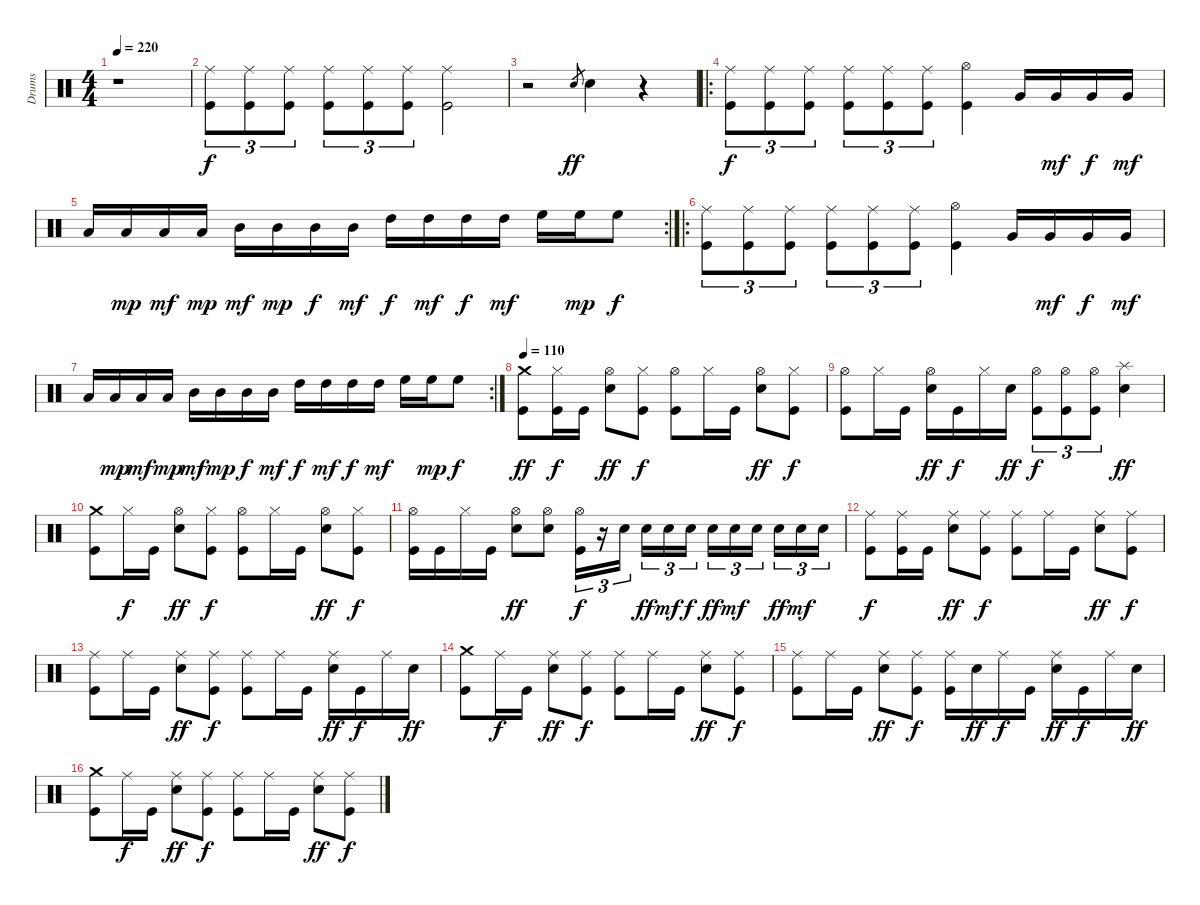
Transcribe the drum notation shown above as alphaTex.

\track ("Drums" "Drums") {instrument percussion}
\staff {score}
\articulation defaults
\ts (4 4)
\tempo 220
\clef neutral
\ks c
r.1{dy f} |
("Kick (hit)" "Ride (middle)").8{tu (3 2)} ("Kick (hit)" "Ride (middle)").8{tu (3 2)} ("Kick (hit)" "Ride (middle)").8{tu (3 2)} ("Kick (hit)" "Ride (middle)").8{tu (3 2)} ("Kick (hit)" "Ride (middle)").8{tu (3 2)} ("Kick (hit)" "Ride (middle)").8{tu (3 2)} ("Kick (hit)" "Ride (middle)").2 |
r.2 "Electric Snare (hit)".8{gr dy ff} "Electric Snare (hit)".4 r.4 |
\ro
("Kick (hit)" "Ride (middle)").8{tu (3 2) dy f} ("Kick (hit)" "Ride (middle)").8{tu (3 2)} ("Kick (hit)" "Ride (middle)").8{tu (3 2)} ("Kick (hit)" "Ride (middle)").8{tu (3 2)} ("Kick (hit)" "Ride (middle)").8{tu (3 2)} ("Kick (hit)" "Ride (middle)").8{tu (3 2)} ("Kick (hit)" "Hi-Hat (open)").4 "Very Low Tom (hit)".16 "Very Low Tom (hit)".16{dy mf} "Very Low Tom (hit)".16{dy f} "Very Low Tom (hit)".16{dy mf} |
\rc 2 "Low Tom (hit)".16 "Low Tom (hit)".16{dy mp} "Low Tom (hit)".16{dy mf} "Low Tom (hit)".16{dy mp} "Mid Tom (hit)".16{dy mf} "Mid Tom (hit)".16{dy mp} "Mid Tom (hit)".16{dy f} "Mid Tom (hit)".16{dy mf} "High Tom (hit)".16{dy f} "High Tom (hit)".16{dy mf} "High Tom (hit)".16{dy f} "High Tom (hit)".16{dy mf} "High Floor Tom (hit)".16 "High Floor Tom (hit)".16{dy mp} "High Floor Tom (hit)".8{dy f}
|
\ro
("Kick (hit)" "Ride (middle)").8{tu (3 2)} ("Kick (hit)" "Ride (middle)").8{tu (3 2)} ("Kick (hit)" "Ride (middle)").8{tu (3 2)} ("Kick (hit)" "Ride (middle)").8{tu (3 2)} ("Kick (hit)" "Ride (middle)").8{tu (3 2)} ("Kick (hit)" "Ride (middle)").8{tu (3 2)} ("Kick (hit)" "Hi-Hat (open)").4 "Very Low Tom (hit)".16 "Very Low Tom (hit)".16{dy mf} "Very Low Tom (hit)".16{dy f} "Very Low Tom (hit)".16{dy mf} |
\rc 2 "Low Tom (hit)".16 "Low Tom (hit)".16{dy mp} "Low Tom (hit)".16{dy mf} "Low Tom (hit)".16{dy mp} "Mid Tom (hit)".16{dy mf} "Mid Tom (hit)".16{dy mp} "Mid Tom (hit)".16{dy f} "Mid Tom (hit)".16{dy mf} "High Tom (hit)".16{dy f} "High Tom (hit)".16{dy mf} "High Tom (hit)".16{dy f} "High Tom (hit)".16{dy mf} "High Floor Tom (hit)".16 "High Floor Tom (hit)".16{dy mp} "High Floor Tom (hit)".8{dy f}
|
\tempo 110
("Kick (hit)" "Crash medium (hit)").8{dy ff} ("Kick (hit)" "Hi-Hat (closed)").16{dy f} "Kick (hit)".16 ("Electric Snare (hit)" "Hi-Hat (open)").8{dy ff} ("Kick (hit)" "Hi-Hat (closed)").8{dy f} ("Kick (hit)" "Hi-Hat (open)").8 "Hi-Hat (closed)".16 "Kick (hit)".16 ("Electric Snare (hit)" "Hi-Hat (open)").8{dy ff} ("Kick (hit)" "Hi-Hat (closed)").8{dy f} |
("Kick (hit)" "Hi-Hat (open)").8 "Hi-Hat (closed)".16 "Kick (hit)".16 ("Electric Snare (hit)" "Hi-Hat (open)").16{dy ff} "Kick (hit)".16{dy f} "Hi-Hat (closed)".16 "Electric Snare (hit)".16{dy ff} ("Kick (hit)" "Hi-Hat (open)").8{tu (3 2) dy f} ("Kick (hit)" "Hi-Hat (open)").8{tu (3 2)} ("Kick (hit)" "Hi-Hat (open)").8{tu (3 2)} ("Electric Snare (hit)" "Splash (hit)").4{dy ff} |
("Kick (hit)" "Crash medium (hit)").8 "Hi-Hat (closed)".16{dy f} "Kick (hit)".16 ("Electric Snare (hit)" "Hi-Hat (open)").8{dy ff} ("Kick (hit)" "Hi-Hat (closed)").8{dy f} ("Kick (hit)" "Hi-Hat (open)").8 "Hi-Hat (closed)".16 "Kick (hit)".16 ("Electric Snare (hit)" "Hi-Hat (open)").8{dy ff} ("Kick (hit)" "Hi-Hat (closed)").8{dy f} |
("Kick (hit)" "Hi-Hat (open)").16 "Kick (hit)".16 "Hi-Hat (closed)".16 "Kick (hit)".16 ("Electric Snare (hit)" "Hi-Hat (open)").8{dy ff} ("Electric Snare (hit)" "Hi-Hat (open)").8 ("Kick (hit)" "Hi-Hat (open)").16{tu (3 2) dy f} r.16{tu (3 2)} "Electric Snare (hit)".16{tu (3 2)} "Electric Snare (hit)".16{tu (3 2) dy ff} "Electric Snare (hit)".16{tu (3 2) dy mf} "Electric Snare (hit)".16{tu (3 2) dy f} "Electric Snare (hit)".16{tu (3 2) dy ff} "Electric Snare (hit)".16{tu (3 2) dy mf} "Electric Snare (hit)".16{tu (3 2)} "Electric Snare (hit)".16{tu (3 2) dy ff} "Electric Snare (hit)".16{tu (3 2) dy mf} "Electric Snare (hit)".16{tu (3 2)} |
("Kick (hit)" "Ride (middle)").8{dy f} ("Kick (hit)" "Ride (middle)").16 "Kick (hit)".16 ("Electric Snare (hit)" "Ride (middle)").8{dy ff} ("Kick (hit)" "Ride (middle)").8{dy f} ("Kick (hit)" "Ride (middle)").8 "Ride (middle)".16 "Kick (hit)".16 ("Electric Snare (hit)" "Ride (middle)").8{dy ff} ("Kick (hit)" "Ride (middle)").8{dy f} |
("Kick (hit)" "Ride (middle)").8 "Ride (middle)".16 "Kick (hit)".16 ("Electric Snare (hit)" "Ride (middle)").8{dy ff} ("Kick (hit)" "Ride (middle)").8{dy f} ("Kick (hit)" "Ride (middle)").8 "Ride (middle)".16 "Kick (hit)".16 ("Electric Snare (hit)" "Ride (middle)").16{dy ff} "Kick (hit)".16{dy f} "Ride (middle)".16 "Electric Snare (hit)".16{dy ff} |
("Kick (hit)" "Crash medium (hit)").8 "Ride (middle)".16{dy f} "Kick (hit)".16 ("Electric Snare (hit)" "Ride (middle)").8{dy ff} ("Kick (hit)" "Ride (middle)").8{dy f} ("Kick (hit)" "Ride (middle)").8 "Ride (middle)".16 "Kick (hit)".16 ("Electric Snare (hit)" "Ride (middle)").8{dy ff} ("Kick (hit)" "Ride (middle)").8{dy f} |
("Kick (hit)" "Ride (middle)").8 "Ride (middle)".16 "Kick (hit)".16 ("Electric Snare (hit)" "Ride (middle)").8{dy ff} ("Kick (hit)" "Ride (middle)").8{dy f} ("Kick (hit)" "Ride (middle)").16 "Electric Snare (hit)".16{dy ff} "Ride (middle)".16{dy f} "Kick (hit)".16 ("Electric Snare (hit)" "Ride (middle)").16{dy ff} "Kick (hit)".16{dy f} "Ride (middle)".16 "Electric Snare (hit)".16{dy ff} |
("Kick (hit)" "Crash medium (hit)").8 "Ride (middle)".16{dy f} "Kick (hit)".16 ("Electric Snare (hit)" "Ride (middle)").8{dy ff} ("Kick (hit)" "Ride (middle)").8{dy f} ("Kick (hit)" "Ride (middle)").8 "Ride (middle)".16 "Kick (hit)".16 ("Electric Snare (hit)" "Ride (middle)").8{dy ff} ("Kick (hit)" "Ride (middle)").8{dy f}
